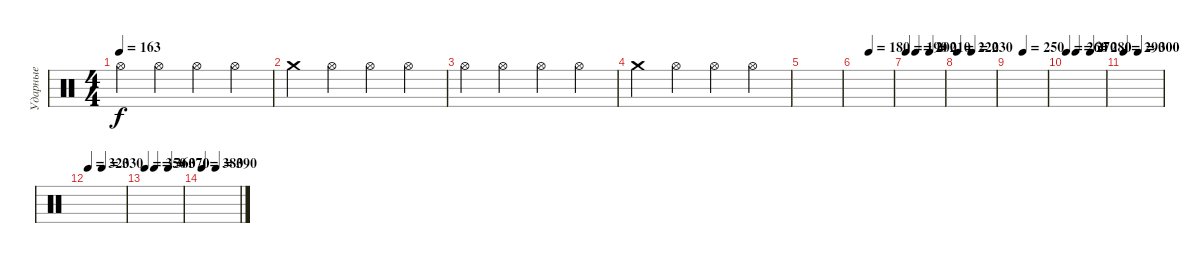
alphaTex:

\track ("Ударные" "Ударные") {instrument percussion}
\staff {score}
\articulation defaults
\ts (4 4)
\tempo 163
\clef neutral
\ks c "Hi-Hat (open)".4{dy f} "Hi-Hat (open)".4 "Hi-Hat (open)".4 "Hi-Hat (open)".4
|
"Crash medium (hit)".4 "Hi-Hat (open)".4 "Hi-Hat (open)".4 "Hi-Hat (open)".4 |
"Hi-Hat (open)".4 "Hi-Hat (open)".4 "Hi-Hat (open)".4 "Hi-Hat (open)".4 |
"Crash medium (hit)".4 "Hi-Hat (open)".4 "Hi-Hat (open)".4 "Hi-Hat (open)".4 |
|
\tempo (180 0.375)
|
\tempo 190
\tempo (200 0.25)
\tempo (210 0.625)
|
\tempo 220
\tempo (230 0.375)
|
\tempo (250 0.375)
|
\tempo 260
\tempo (270 0.25)
\tempo (280 0.625)
|
\tempo 290
\tempo (300 0.375)
|
\tempo 320
\tempo (330 0.375)
|
\tempo 350
\tempo (360 0.25)
\tempo (370 0.625)
|
\tempo 380
\tempo (390 0.375)
